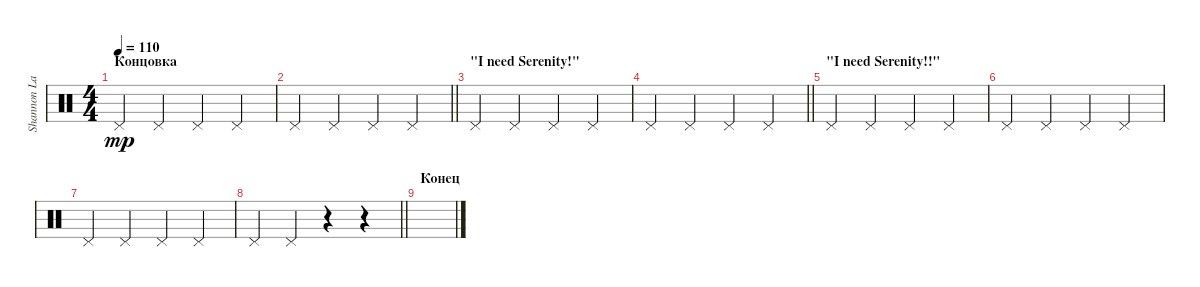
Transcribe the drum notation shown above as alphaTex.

\track ("Shannon Larkin [Percussion 3]" "Shannon La") {instrument percussion}
\staff {score}
\articulation defaults
\ts (4 4)
\section ("" "Концовка")
\tempo 110
\clef neutral
\ks c "Pedal Hi-Hat (hit)".4{dy mp} "Pedal Hi-Hat (hit)".4 "Pedal Hi-Hat (hit)".4 "Pedal Hi-Hat (hit)".4
|
\barLineRight lightlight "Pedal Hi-Hat (hit)".4 "Pedal Hi-Hat (hit)".4 "Pedal Hi-Hat (hit)".4 "Pedal Hi-Hat (hit)".4
|
\section ("" "\"I need Serenity!\"")
"Pedal Hi-Hat (hit)".4 "Pedal Hi-Hat (hit)".4 "Pedal Hi-Hat (hit)".4 "Pedal Hi-Hat (hit)".4 |
\barLineRight lightlight "Pedal Hi-Hat (hit)".4 "Pedal Hi-Hat (hit)".4 "Pedal Hi-Hat (hit)".4 "Pedal Hi-Hat (hit)".4
|
\section ("" "\"I need Serenity!!\"")
"Pedal Hi-Hat (hit)".4 "Pedal Hi-Hat (hit)".4 "Pedal Hi-Hat (hit)".4 "Pedal Hi-Hat (hit)".4 |
"Pedal Hi-Hat (hit)".4 "Pedal Hi-Hat (hit)".4 "Pedal Hi-Hat (hit)".4 "Pedal Hi-Hat (hit)".4 |
"Pedal Hi-Hat (hit)".4 "Pedal Hi-Hat (hit)".4 "Pedal Hi-Hat (hit)".4 "Pedal Hi-Hat (hit)".4 |
\barLineRight lightlight "Pedal Hi-Hat (hit)".4 "Pedal Hi-Hat (hit)".4
r.4 r.4 |
\section ("" "Конец")
